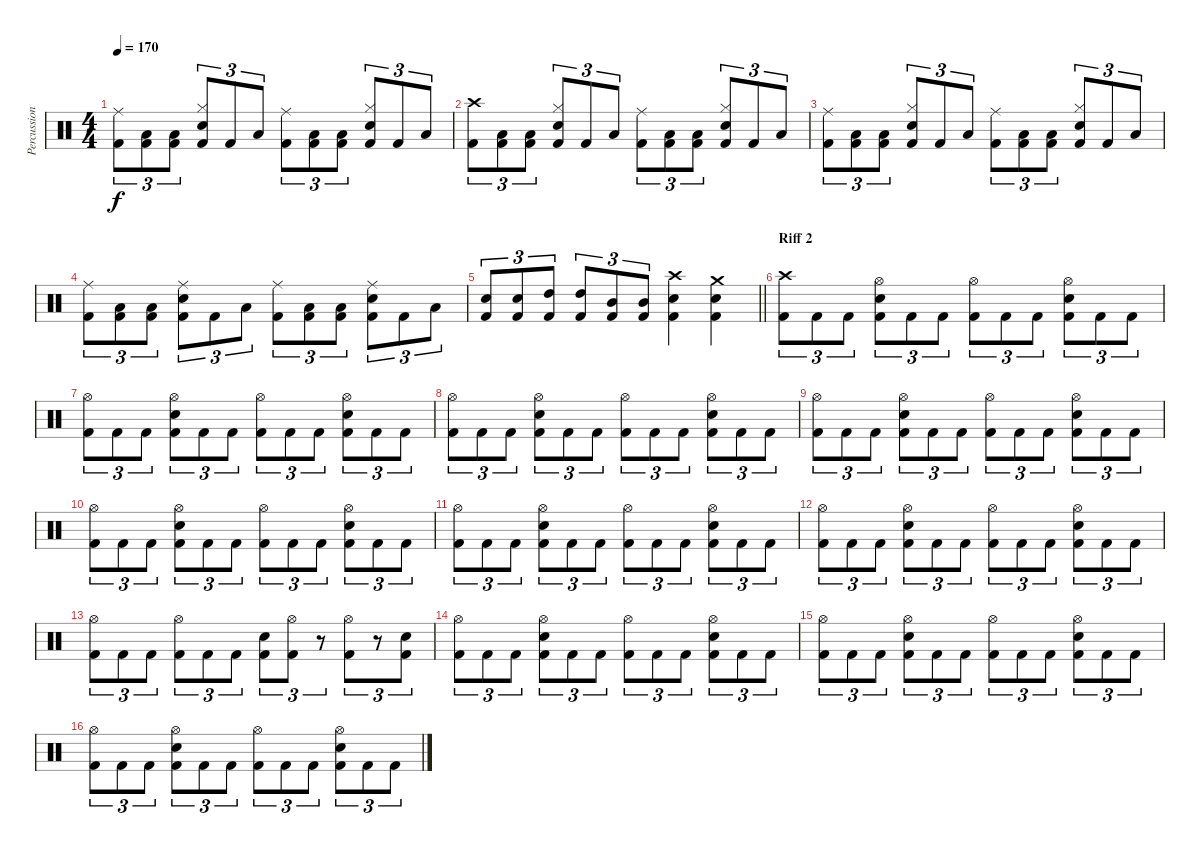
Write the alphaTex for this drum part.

\track ("Percussions" "Percussion") {instrument percussion}
\staff {score}
\articulation defaults
\ts (4 4)
\tempo 170
\clef neutral
\ks c
("Ride (middle)" "Kick (hit) 2").8{tu (3 2) dy f} ("Low Floor Tom (hit)" "Kick (hit) 2").8{tu (3 2)} ("Low Floor Tom (hit)" "Kick (hit) 2").8{tu (3 2)} ("Hi-Hat (closed)" "Snare (hit) 2" "Kick (hit) 2").8{tu (3 2)} "Kick (hit) 2".8{tu (3 2)} "Low Floor Tom (hit)".8{tu (3 2)} ("Ride (middle)" "Kick (hit) 2").8{tu (3 2)} ("Low Floor Tom (hit)" "Kick (hit) 2").8{tu (3 2)} ("Low Floor Tom (hit)" "Kick (hit) 2").8{tu (3 2)} ("Hi-Hat (closed)" "Snare (hit) 2" "Kick (hit) 2").8{tu (3 2)} "Kick (hit) 2".8{tu (3 2)} "Low Floor Tom (hit)".8{tu (3 2)} |
("Crash high (hit)" "Kick (hit) 2").8{tu (3 2)} ("Low Floor Tom (hit)" "Kick (hit) 2").8{tu (3 2)} ("Low Floor Tom (hit)" "Kick (hit) 2").8{tu (3 2)} ("Hi-Hat (closed)" "Snare (hit) 2" "Kick (hit) 2").8{tu (3 2)} "Kick (hit) 2".8{tu (3 2)} "Low Floor Tom (hit)".8{tu (3 2)} ("Ride (middle)" "Kick (hit) 2").8{tu (3 2)} ("Low Floor Tom (hit)" "Kick (hit) 2").8{tu (3 2)} ("Low Floor Tom (hit)" "Kick (hit) 2").8{tu (3 2)} ("Hi-Hat (closed)" "Snare (hit) 2" "Kick (hit) 2").8{tu (3 2)} "Kick (hit) 2".8{tu (3 2)} "Low Floor Tom (hit)".8{tu (3 2)} |
("Ride (middle)" "Kick (hit) 2").8{tu (3 2)} ("Low Floor Tom (hit)" "Kick (hit) 2").8{tu (3 2)} ("Low Floor Tom (hit)" "Kick (hit) 2").8{tu (3 2)} ("Hi-Hat (closed)" "Snare (hit) 2" "Kick (hit) 2").8{tu (3 2)} "Kick (hit) 2".8{tu (3 2)} "Low Floor Tom (hit)".8{tu (3 2)} ("Ride (middle)" "Kick (hit) 2").8{tu (3 2)} ("Low Floor Tom (hit)" "Kick (hit) 2").8{tu (3 2)} ("Low Floor Tom (hit)" "Kick (hit) 2").8{tu (3 2)} ("Hi-Hat (closed)" "Snare (hit) 2" "Kick (hit) 2").8{tu (3 2)} "Kick (hit) 2".8{tu (3 2)} "Low Floor Tom (hit)".8{tu (3 2)} |
("Ride (middle)" "Kick (hit) 2").8{tu (3 2)} ("Low Floor Tom (hit)" "Kick (hit) 2").8{tu (3 2)} ("Low Floor Tom (hit)" "Kick (hit) 2").8{tu (3 2)} ("Ride (middle)" "Snare (hit) 2" "Kick (hit) 2").8{tu (3 2)} "Kick (hit) 2".8{tu (3 2)} "Low Floor Tom (hit)".8{tu (3 2)} ("Ride (middle)" "Kick (hit) 2").8{tu (3 2)} ("Low Floor Tom (hit)" "Kick (hit) 2").8{tu (3 2)} ("Low Floor Tom (hit)" "Kick (hit) 2").8{tu (3 2)} ("Ride (middle)" "Snare (hit) 2" "Kick (hit) 2").8{tu (3 2)} "Kick (hit) 2".8{tu (3 2)} "Low Floor Tom (hit)".8{tu (3 2)} |
\barLineRight lightlight
("Snare (hit) 2" "Kick (hit) 2").8{tu (3 2)} ("Snare (hit) 2" "Kick (hit) 2").8{tu (3 2)} ("High Tom (hit)" "Kick (hit) 2").8{tu (3 2)} ("High Tom (hit)" "Kick (hit) 2").8{tu (3 2)} ("Mid Tom (hit)" "Kick (hit) 2").8{tu (3 2)} ("Mid Tom (hit)" "Kick (hit) 2").8{tu (3 2)} ("Crash high (hit)" "Snare (hit) 2" "Kick (hit) 2").4 ("Crash medium (hit)" "Snare (hit) 2" "Kick (hit) 2").4 |
\section ("" "Riff 2")
("Crash high (hit)" "Kick (hit) 2").8{tu (3 2)} "Kick (hit) 2".8{tu (3 2)} "Kick (hit) 2".8{tu (3 2)} ("Hi-Hat (open)" "Snare (hit) 2" "Kick (hit) 2").8{tu (3 2)} "Kick (hit) 2".8{tu (3 2)} "Kick (hit) 2".8{tu (3 2)} ("Hi-Hat (open)" "Kick (hit) 2").8{tu (3 2)} "Kick (hit) 2".8{tu (3 2)} "Kick (hit) 2".8{tu (3 2)} ("Hi-Hat (open)" "Snare (hit) 2" "Kick (hit) 2").8{tu (3 2)} "Kick (hit) 2".8{tu (3 2)} "Kick (hit) 2".8{tu (3 2)} |
("Hi-Hat (open)" "Kick (hit) 2").8{tu (3 2)} "Kick (hit) 2".8{tu (3 2)} "Kick (hit) 2".8{tu (3 2)} ("Hi-Hat (open)" "Snare (hit) 2" "Kick (hit) 2").8{tu (3 2)} "Kick (hit) 2".8{tu (3 2)} "Kick (hit) 2".8{tu (3 2)} ("Hi-Hat (open)" "Kick (hit) 2").8{tu (3 2)} "Kick (hit) 2".8{tu (3 2)} "Kick (hit) 2".8{tu (3 2)} ("Hi-Hat (open)" "Snare (hit) 2" "Kick (hit) 2").8{tu (3 2)} "Kick (hit) 2".8{tu (3 2)} "Kick (hit) 2".8{tu (3 2)} |
("Hi-Hat (open)" "Kick (hit) 2").8{tu (3 2)} "Kick (hit) 2".8{tu (3 2)} "Kick (hit) 2".8{tu (3 2)} ("Hi-Hat (open)" "Snare (hit) 2" "Kick (hit) 2").8{tu (3 2)} "Kick (hit) 2".8{tu (3 2)} "Kick (hit) 2".8{tu (3 2)} ("Hi-Hat (open)" "Kick (hit) 2").8{tu (3 2)} "Kick (hit) 2".8{tu (3 2)} "Kick (hit) 2".8{tu (3 2)} ("Hi-Hat (open)" "Snare (hit) 2" "Kick (hit) 2").8{tu (3 2)} "Kick (hit) 2".8{tu (3 2)} "Kick (hit) 2".8{tu (3 2)} |
("Hi-Hat (open)" "Kick (hit) 2").8{tu (3 2)} "Kick (hit) 2".8{tu (3 2)} "Kick (hit) 2".8{tu (3 2)} ("Hi-Hat (open)" "Snare (hit) 2" "Kick (hit) 2").8{tu (3 2)} "Kick (hit) 2".8{tu (3 2)} "Kick (hit) 2".8{tu (3 2)} ("Hi-Hat (open)" "Kick (hit) 2").8{tu (3 2)} "Kick (hit) 2".8{tu (3 2)} "Kick (hit) 2".8{tu (3 2)} ("Hi-Hat (open)" "Snare (hit) 2" "Kick (hit) 2").8{tu (3 2)} "Kick (hit) 2".8{tu (3 2)} "Kick (hit) 2".8{tu (3 2)} |
("Hi-Hat (open)" "Kick (hit) 2").8{tu (3 2)} "Kick (hit) 2".8{tu (3 2)} "Kick (hit) 2".8{tu (3 2)} ("Hi-Hat (open)" "Snare (hit) 2" "Kick (hit) 2").8{tu (3 2)} "Kick (hit) 2".8{tu (3 2)} "Kick (hit) 2".8{tu (3 2)} ("Hi-Hat (open)" "Kick (hit) 2").8{tu (3 2)} "Kick (hit) 2".8{tu (3 2)} "Kick (hit) 2".8{tu (3 2)} ("Hi-Hat (open)" "Snare (hit) 2" "Kick (hit) 2").8{tu (3 2)} "Kick (hit) 2".8{tu (3 2)} "Kick (hit) 2".8{tu (3 2)} |
("Hi-Hat (open)" "Kick (hit) 2").8{tu (3 2)} "Kick (hit) 2".8{tu (3 2)} "Kick (hit) 2".8{tu (3 2)} ("Hi-Hat (open)" "Snare (hit) 2" "Kick (hit) 2").8{tu (3 2)} "Kick (hit) 2".8{tu (3 2)} "Kick (hit) 2".8{tu (3 2)} ("Hi-Hat (open)" "Kick (hit) 2").8{tu (3 2)} "Kick (hit) 2".8{tu (3 2)} "Kick (hit) 2".8{tu (3 2)} ("Hi-Hat (open)" "Snare (hit) 2" "Kick (hit) 2").8{tu (3 2)} "Kick (hit) 2".8{tu (3 2)} "Kick (hit) 2".8{tu (3 2)} |
("Hi-Hat (open)" "Kick (hit) 2").8{tu (3 2)} "Kick (hit) 2".8{tu (3 2)} "Kick (hit) 2".8{tu (3 2)} ("Hi-Hat (open)" "Snare (hit) 2" "Kick (hit) 2").8{tu (3 2)} "Kick (hit) 2".8{tu (3 2)} "Kick (hit) 2".8{tu (3 2)} ("Hi-Hat (open)" "Kick (hit) 2").8{tu (3 2)} "Kick (hit) 2".8{tu (3 2)} "Kick (hit) 2".8{tu (3 2)} ("Hi-Hat (open)" "Snare (hit) 2" "Kick (hit) 2").8{tu (3 2)} "Kick (hit) 2".8{tu (3 2)} "Kick (hit) 2".8{tu (3 2)} |
("Hi-Hat (open)" "Kick (hit) 2").8{tu (3 2)} "Kick (hit) 2".8{tu (3 2)} "Kick (hit) 2".8{tu (3 2)} ("Hi-Hat (open)" "Kick (hit) 2").8{tu (3 2)} "Kick (hit) 2".8{tu (3 2)} "Kick (hit) 2".8{tu (3 2)} ("Snare (hit) 2" "Kick (hit) 2").8{tu (3 2)} ("Hi-Hat (open)" "Kick (hit) 2").8{tu (3 2)} r.8{tu (3 2)} ("Hi-Hat (open)" "Kick (hit) 2").8{tu (3 2)} r.8{tu (3 2)} ("Snare (hit) 2" "Kick (hit) 2").8{tu (3 2)} |
("Hi-Hat (open)" "Kick (hit) 2").8{tu (3 2)} "Kick (hit) 2".8{tu (3 2)} "Kick (hit) 2".8{tu (3 2)} ("Hi-Hat (open)" "Snare (hit) 2" "Kick (hit) 2").8{tu (3 2)} "Kick (hit) 2".8{tu (3 2)} "Kick (hit) 2".8{tu (3 2)} ("Hi-Hat (open)" "Kick (hit) 2").8{tu (3 2)} "Kick (hit) 2".8{tu (3 2)} "Kick (hit) 2".8{tu (3 2)} ("Hi-Hat (open)" "Snare (hit) 2" "Kick (hit) 2").8{tu (3 2)} "Kick (hit) 2".8{tu (3 2)} "Kick (hit) 2".8{tu (3 2)} |
("Hi-Hat (open)" "Kick (hit) 2").8{tu (3 2)} "Kick (hit) 2".8{tu (3 2)} "Kick (hit) 2".8{tu (3 2)} ("Hi-Hat (open)" "Snare (hit) 2" "Kick (hit) 2").8{tu (3 2)} "Kick (hit) 2".8{tu (3 2)} "Kick (hit) 2".8{tu (3 2)} ("Hi-Hat (open)" "Kick (hit) 2").8{tu (3 2)} "Kick (hit) 2".8{tu (3 2)} "Kick (hit) 2".8{tu (3 2)} ("Hi-Hat (open)" "Snare (hit) 2" "Kick (hit) 2").8{tu (3 2)} "Kick (hit) 2".8{tu (3 2)} "Kick (hit) 2".8{tu (3 2)} |
("Hi-Hat (open)" "Kick (hit) 2").8{tu (3 2)} "Kick (hit) 2".8{tu (3 2)} "Kick (hit) 2".8{tu (3 2)} ("Hi-Hat (open)" "Snare (hit) 2" "Kick (hit) 2").8{tu (3 2)} "Kick (hit) 2".8{tu (3 2)} "Kick (hit) 2".8{tu (3 2)} ("Hi-Hat (open)" "Kick (hit) 2").8{tu (3 2)} "Kick (hit) 2".8{tu (3 2)} "Kick (hit) 2".8{tu (3 2)} ("Hi-Hat (open)" "Snare (hit) 2" "Kick (hit) 2").8{tu (3 2)} "Kick (hit) 2".8{tu (3 2)} "Kick (hit) 2".8{tu (3 2)}
